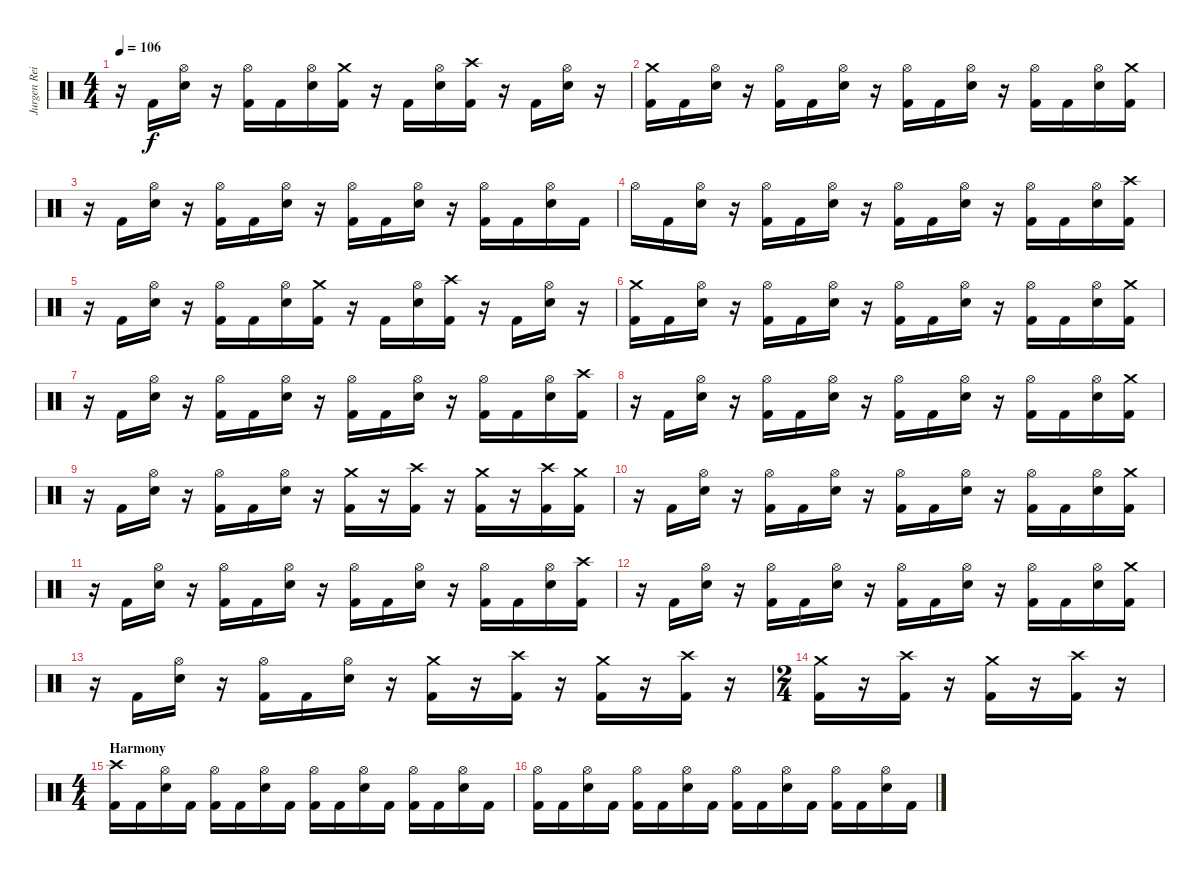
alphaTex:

\track ("Jurgen Reil" "Jurgen Rei") {instrument percussion}
\staff {score}
\articulation defaults
\ts (4 4)
\tempo 106
\clef neutral
\ks c
r.16{dy f} "Kick (hit) 2".16 ("Hi-Hat (open)" "Snare (hit) 2").16 r.16 ("Hi-Hat (open)" "Kick (hit) 2").16 "Kick (hit) 2".16 ("Hi-Hat (open)" "Snare (hit) 2").16 ("Crash medium (hit)" "Kick (hit) 2").16 r.16 "Kick (hit) 2".16 ("Hi-Hat (open)" "Snare (hit) 2").16 ("Crash high (hit)" "Kick (hit) 2").16 r.16 "Kick (hit) 2".16 ("Hi-Hat (open)" "Snare (hit) 2").16 r.16 |
("Crash medium (hit)" "Kick (hit) 2").16 "Kick (hit) 2".16 ("Hi-Hat (open)" "Snare (hit) 2").16 r.16 ("Hi-Hat (open)" "Kick (hit) 2").16 "Kick (hit) 2".16 ("Hi-Hat (open)" "Snare (hit) 2").16 r.16 ("Hi-Hat (open)" "Kick (hit) 2").16 "Kick (hit) 2".16 ("Hi-Hat (open)" "Snare (hit) 2").16 r.16 ("Hi-Hat (open)" "Kick (hit) 2").16 "Kick (hit) 2".16 ("Hi-Hat (open)" "Snare (hit) 2").16 ("Crash medium (hit)" "Kick (hit) 2").16 |
r.16 "Kick (hit) 2".16 ("Hi-Hat (open)" "Snare (hit) 2").16 r.16 ("Hi-Hat (open)" "Kick (hit) 2").16 "Kick (hit) 2".16 ("Hi-Hat (open)" "Snare (hit) 2").16 r.16 ("Hi-Hat (open)" "Kick (hit) 2").16 "Kick (hit) 2".16 ("Hi-Hat (open)" "Snare (hit) 2").16 r.16 ("Hi-Hat (open)" "Kick (hit) 2").16 "Kick (hit) 2".16 ("Hi-Hat (open)" "Snare (hit) 2").16 "Kick (hit) 2".16 |
"Hi-Hat (open)".16 "Kick (hit) 2".16 ("Hi-Hat (open)" "Snare (hit) 2").16 r.16 ("Hi-Hat (open)" "Kick (hit) 2").16 "Kick (hit) 2".16 ("Hi-Hat (open)" "Snare (hit) 2").16 r.16 ("Hi-Hat (open)" "Kick (hit) 2").16 "Kick (hit) 2".16 ("Hi-Hat (open)" "Snare (hit) 2").16 r.16 ("Hi-Hat (open)" "Kick (hit) 2").16 "Kick (hit) 2".16 ("Hi-Hat (open)" "Snare (hit) 2").16 ("Crash high (hit)" "Kick (hit) 2").16 |
r.16 "Kick (hit) 2".16 ("Hi-Hat (open)" "Snare (hit) 2").16 r.16 ("Hi-Hat (open)" "Kick (hit) 2").16 "Kick (hit) 2".16 ("Hi-Hat (open)" "Snare (hit) 2").16 ("Crash medium (hit)" "Kick (hit) 2").16 r.16 "Kick (hit) 2".16 ("Hi-Hat (open)" "Snare (hit) 2").16 ("Crash high (hit)" "Kick (hit) 2").16 r.16 "Kick (hit) 2".16 ("Hi-Hat (open)" "Snare (hit) 2").16 r.16 |
("Crash medium (hit)" "Kick (hit) 2").16 "Kick (hit) 2".16 ("Hi-Hat (open)" "Snare (hit) 2").16 r.16 ("Hi-Hat (open)" "Kick (hit) 2").16 "Kick (hit) 2".16 ("Hi-Hat (open)" "Snare (hit) 2").16 r.16 ("Hi-Hat (open)" "Kick (hit) 2").16 "Kick (hit) 2".16 ("Hi-Hat (open)" "Snare (hit) 2").16 r.16 ("Hi-Hat (open)" "Kick (hit) 2").16 "Kick (hit) 2".16 ("Hi-Hat (open)" "Snare (hit) 2").16 ("Crash medium (hit)" "Kick (hit) 2").16 |
r.16 "Kick (hit) 2".16 ("Hi-Hat (open)" "Snare (hit) 2").16 r.16 ("Hi-Hat (open)" "Kick (hit) 2").16 "Kick (hit) 2".16 ("Hi-Hat (open)" "Snare (hit) 2").16 r.16 ("Hi-Hat (open)" "Kick (hit) 2").16 "Kick (hit) 2".16 ("Hi-Hat (open)" "Snare (hit) 2").16 r.16 ("Hi-Hat (open)" "Kick (hit) 2").16 "Kick (hit) 2".16 ("Hi-Hat (open)" "Snare (hit) 2").16 ("Crash high (hit)" "Kick (hit) 2").16 |
r.16 "Kick (hit) 2".16 ("Hi-Hat (open)" "Snare (hit) 2").16 r.16 ("Hi-Hat (open)" "Kick (hit) 2").16 "Kick (hit) 2".16 ("Hi-Hat (open)" "Snare (hit) 2").16 r.16 ("Hi-Hat (open)" "Kick (hit) 2").16 "Kick (hit) 2".16 ("Hi-Hat (open)" "Snare (hit) 2").16 r.16 ("Hi-Hat (open)" "Kick (hit) 2").16 "Kick (hit) 2".16 ("Hi-Hat (open)" "Snare (hit) 2").16 ("Crash medium (hit)" "Kick (hit) 2").16 |
r.16 "Kick (hit) 2".16 ("Hi-Hat (open)" "Snare (hit) 2").16 r.16 ("Hi-Hat (open)" "Kick (hit) 2").16 "Kick (hit) 2".16 ("Hi-Hat (open)" "Snare (hit) 2").16 r.16 ("Crash medium (hit)" "Kick (hit) 2").16 r.16 ("Crash high (hit)" "Kick (hit) 2").16 r.16 ("Crash medium (hit)" "Kick (hit) 2").16 r.16 ("Crash high (hit)" "Kick (hit) 2").16 ("Crash medium (hit)" "Kick (hit) 2").16 |
r.16 "Kick (hit) 2".16 ("Hi-Hat (open)" "Snare (hit) 2").16 r.16 ("Hi-Hat (open)" "Kick (hit) 2").16 "Kick (hit) 2".16 ("Hi-Hat (open)" "Snare (hit) 2").16 r.16 ("Hi-Hat (open)" "Kick (hit) 2").16 "Kick (hit) 2".16 ("Hi-Hat (open)" "Snare (hit) 2").16 r.16 ("Hi-Hat (open)" "Kick (hit) 2").16 "Kick (hit) 2".16 ("Hi-Hat (open)" "Snare (hit) 2").16 ("Crash medium (hit)" "Kick (hit) 2").16 |
r.16 "Kick (hit) 2".16 ("Hi-Hat (open)" "Snare (hit) 2").16 r.16 ("Hi-Hat (open)" "Kick (hit) 2").16 "Kick (hit) 2".16 ("Hi-Hat (open)" "Snare (hit) 2").16 r.16 ("Hi-Hat (open)" "Kick (hit) 2").16 "Kick (hit) 2".16 ("Hi-Hat (open)" "Snare (hit) 2").16 r.16 ("Hi-Hat (open)" "Kick (hit) 2").16 "Kick (hit) 2".16 ("Hi-Hat (open)" "Snare (hit) 2").16 ("Crash high (hit)" "Kick (hit) 2").16 |
r.16 "Kick (hit) 2".16 ("Hi-Hat (open)" "Snare (hit) 2").16 r.16 ("Hi-Hat (open)" "Kick (hit) 2").16 "Kick (hit) 2".16 ("Hi-Hat (open)" "Snare (hit) 2").16 r.16 ("Hi-Hat (open)" "Kick (hit) 2").16 "Kick (hit) 2".16 ("Hi-Hat (open)" "Snare (hit) 2").16 r.16 ("Hi-Hat (open)" "Kick (hit) 2").16 "Kick (hit) 2".16 ("Hi-Hat (open)" "Snare (hit) 2").16 ("Crash medium (hit)" "Kick (hit) 2").16 |
r.16 "Kick (hit) 2".16 ("Hi-Hat (open)" "Snare (hit) 2").16 r.16 ("Hi-Hat (open)" "Kick (hit) 2").16 "Kick (hit) 2".16 ("Hi-Hat (open)" "Snare (hit) 2").16 r.16 ("Crash medium (hit)" "Kick (hit) 2").16 r.16 ("Crash high (hit)" "Kick (hit) 2").16 r.16 ("Crash medium (hit)" "Kick (hit) 2").16 r.16 ("Crash high (hit)" "Kick (hit) 2").16 r.16 |
\ts (2 4)
("Crash medium (hit)" "Kick (hit) 2").16 r.16 ("Crash high (hit)" "Kick (hit) 2").16 r.16 ("Crash medium (hit)" "Kick (hit) 2").16 r.16 ("Crash high (hit)" "Kick (hit) 2").16 r.16 |
\ts (4 4)
\section ("" "Harmony")
("Crash high (hit)" "Kick (hit) 2").16 "Kick (hit) 2".16 ("Hi-Hat (open)" "Snare (hit) 2").16 "Kick (hit) 2".16 ("Hi-Hat (open)" "Kick (hit) 2").16 "Kick (hit) 2".16 ("Hi-Hat (open)" "Snare (hit) 2").16 "Kick (hit) 2".16 ("Hi-Hat (open)" "Kick (hit) 2").16 "Kick (hit) 2".16 ("Hi-Hat (open)" "Snare (hit) 2").16 "Kick (hit) 2".16 ("Hi-Hat (open)" "Kick (hit) 2").16 "Kick (hit) 2".16 ("Hi-Hat (open)" "Snare (hit) 2").16 "Kick (hit) 2".16 |
("Hi-Hat (open)" "Kick (hit) 2").16 "Kick (hit) 2".16 ("Hi-Hat (open)" "Snare (hit) 2").16 "Kick (hit) 2".16 ("Hi-Hat (open)" "Kick (hit) 2").16 "Kick (hit) 2".16 ("Hi-Hat (open)" "Snare (hit) 2").16 "Kick (hit) 2".16 ("Hi-Hat (open)" "Kick (hit) 2").16 "Kick (hit) 2".16 ("Hi-Hat (open)" "Snare (hit) 2").16 "Kick (hit) 2".16 ("Hi-Hat (open)" "Kick (hit) 2").16 "Kick (hit) 2".16 ("Hi-Hat (open)" "Snare (hit) 2").16 "Kick (hit) 2".16
